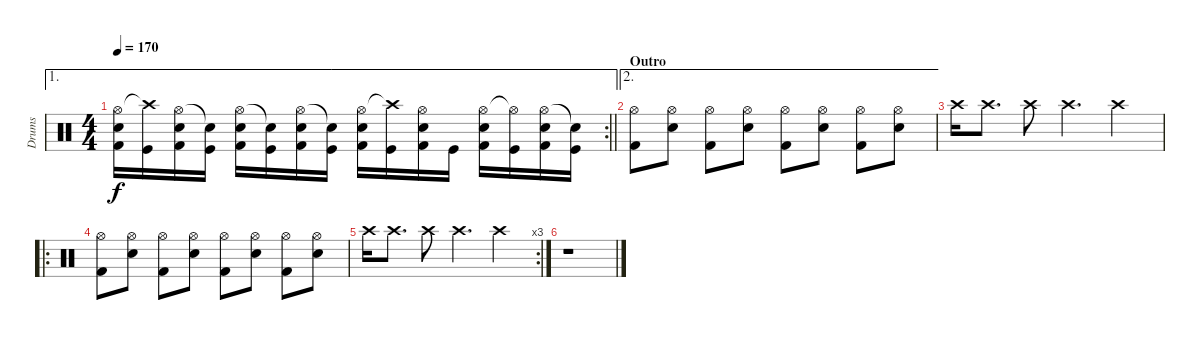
\track ("Drums" "Drums") {instrument percussion}
\staff {score}
\articulation defaults
\ae 1
\rc 2
\ts (4 4)
\tempo 170
\clef neutral
\barLineRight lightlight
\ks c
("Hi-Hat (open)" "Electric Snare (hit)" "Kick (hit) 2").16{dy f} ("Crash high (hit)"{t} "Kick (hit)").16 ("Hi-Hat (open)" "Electric Snare (hit)" "Kick (hit) 2").16 ("Snare (hit)"{t} "Kick (hit)").16 ("Hi-Hat (open)" "Electric Snare (hit)" "Kick (hit) 2").16 ("Snare (hit)"{t} "Kick (hit)").16 ("Hi-Hat (open)" "Electric Snare (hit)" "Kick (hit) 2").16 ("Snare (hit)"{t} "Kick (hit)").16 ("Hi-Hat (open)" "Electric Snare (hit)" "Kick (hit) 2").16 ("Crash high (hit)"{t} "Kick (hit)").16 ("Hi-Hat (open)" "Electric Snare (hit)" "Kick (hit) 2").16 "Kick (hit)".16 ("Hi-Hat (open)" "Electric Snare (hit)" "Kick (hit) 2").16 ("Hi-Hat (open)"{t} "Kick (hit)").16 ("Hi-Hat (open)" "Electric Snare (hit)" "Kick (hit) 2").16 ("Snare (hit)"{t} "Kick (hit)").16 |
\ae 2
\section ("" "Outro")
("Hi-Hat (open)" "Kick (hit) 2").8 ("Hi-Hat (open)" "Electric Snare (hit)").8 ("Hi-Hat (open)" "Kick (hit) 2").8 ("Hi-Hat (open)" "Electric Snare (hit)").8 ("Hi-Hat (open)" "Kick (hit) 2").8 ("Hi-Hat (open)" "Electric Snare (hit)").8 ("Hi-Hat (open)" "Kick (hit) 2").8 ("Hi-Hat (open)" "Electric Snare (hit)").8 |
"Crash high (hit)".16 "Crash high (hit)".8{d} "Crash high (hit)".8 "Crash high (hit)".4{d} "Crash high (hit)".4 |
\ro
("Hi-Hat (open)" "Kick (hit) 2").8 ("Hi-Hat (open)" "Electric Snare (hit)").8 ("Hi-Hat (open)" "Kick (hit) 2").8 ("Hi-Hat (open)" "Electric Snare (hit)").8 ("Hi-Hat (open)" "Kick (hit) 2").8 ("Hi-Hat (open)" "Electric Snare (hit)").8 ("Hi-Hat (open)" "Kick (hit) 2").8 ("Hi-Hat (open)" "Electric Snare (hit)").8 |
\rc 3 "Crash high (hit)".16 "Crash high (hit)".8{d} "Crash high (hit)".8 "Crash high (hit)".4{d} "Crash high (hit)".4
|
r.1
